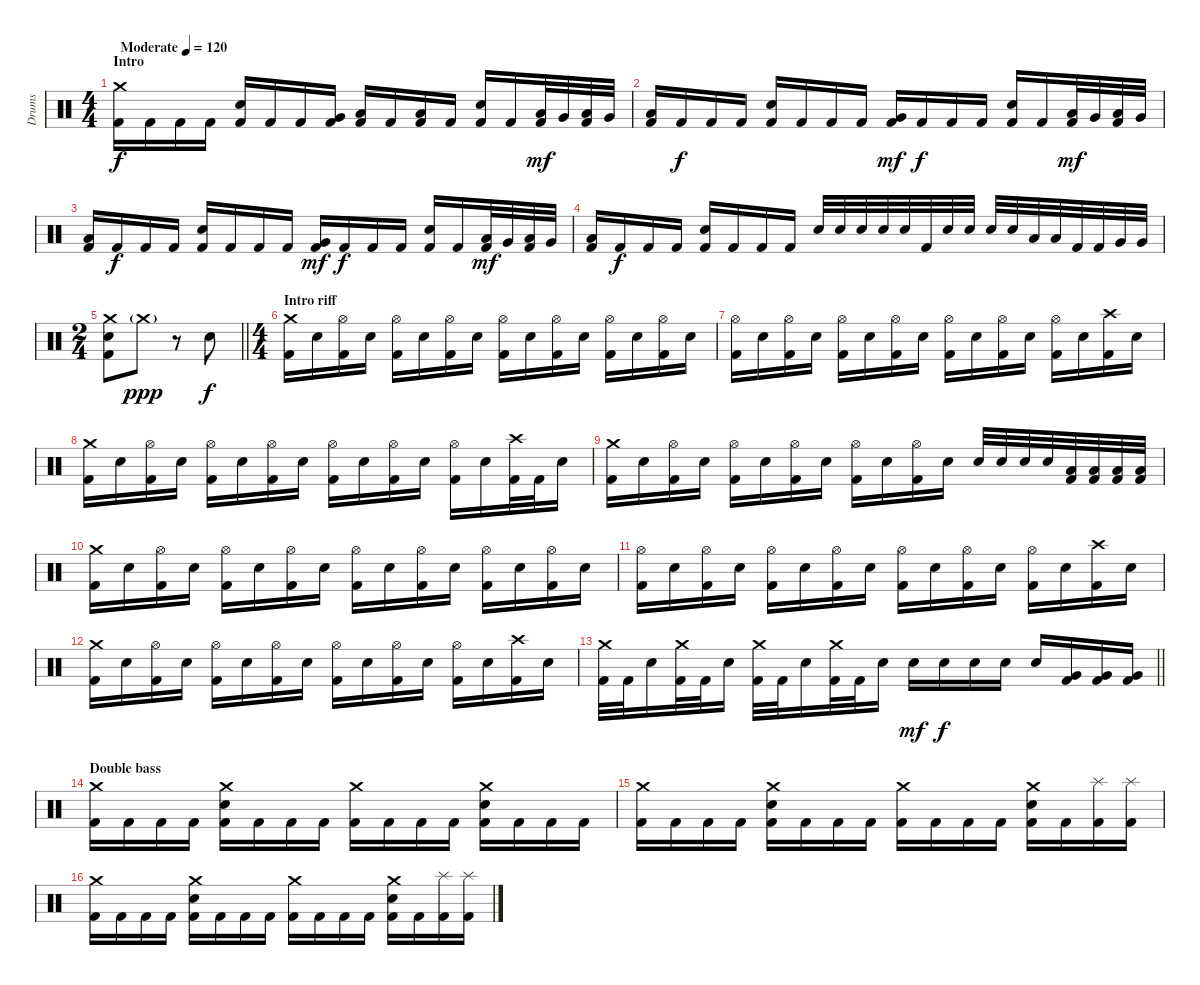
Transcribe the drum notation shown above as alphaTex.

\track ("Drums" "Drums") {instrument percussion}
\staff {score}
\articulation defaults
\ts (4 4)
\section ("" "Intro")
\tempo (120 "Moderate")
\clef neutral
\ks c
("Crash medium (hit)" "Kick (hit) 2").16{dy f} "Kick (hit) 2".16 "Kick (hit) 2".16 "Kick (hit) 2".16 ("Electric Snare (hit)" "Kick (hit) 2").16 "Kick (hit) 2".16 "Kick (hit) 2".16 ("Very Low Tom (hit)" "Kick (hit) 2").16 ("Low Floor Tom (hit)" "Kick (hit) 2").16 "Kick (hit) 2".16 ("Low Floor Tom (hit)" "Kick (hit) 2").16 "Kick (hit) 2".16 ("Electric Snare (hit)" "Kick (hit) 2").16 "Kick (hit) 2".16 ("Low Floor Tom (hit)" "Kick (hit) 2").32{dy mf} "Very Low Tom (hit)".32 ("Low Floor Tom (hit)" "Kick (hit) 2").32 "Very Low Tom (hit)".32 |
("Low Floor Tom (hit)" "Kick (hit) 2").16 "Kick (hit) 2".16{dy f} "Kick (hit) 2".16 "Kick (hit) 2".16 ("Electric Snare (hit)" "Kick (hit) 2").16 "Kick (hit) 2".16 "Kick (hit) 2".16 "Kick (hit) 2".16 ("Very Low Tom (hit)" "Kick (hit) 2").16{dy mf} "Kick (hit) 2".16{dy f} "Kick (hit) 2".16 "Kick (hit) 2".16 ("Electric Snare (hit)" "Kick (hit) 2").16 "Kick (hit) 2".16 ("Low Floor Tom (hit)" "Kick (hit) 2").32{dy mf} "Very Low Tom (hit)".32 ("Low Floor Tom (hit)" "Kick (hit) 2").32 "Very Low Tom (hit)".32 |
("Low Floor Tom (hit)" "Kick (hit) 2").16 "Kick (hit) 2".16{dy f} "Kick (hit) 2".16 "Kick (hit) 2".16 ("Electric Snare (hit)" "Kick (hit) 2").16 "Kick (hit) 2".16 "Kick (hit) 2".16 "Kick (hit) 2".16 ("Very Low Tom (hit)" "Kick (hit) 2").16{dy mf} "Kick (hit) 2".16{dy f} "Kick (hit) 2".16 "Kick (hit) 2".16 ("Electric Snare (hit)" "Kick (hit) 2").16 "Kick (hit) 2".16 ("Low Floor Tom (hit)" "Kick (hit) 2").32{dy mf} "Very Low Tom (hit)".32 ("Low Floor Tom (hit)" "Kick (hit) 2").32 "Very Low Tom (hit)".32 |
("Low Floor Tom (hit)" "Kick (hit) 2").16 "Kick (hit) 2".16{dy f} "Kick (hit) 2".16 "Kick (hit) 2".16 ("Electric Snare (hit)" "Kick (hit) 2").16 "Kick (hit) 2".16 "Kick (hit) 2".16 "Kick (hit) 2".16 "Electric Snare (hit)".32 "Electric Snare (hit)".32 "Electric Snare (hit)".32 "Electric Snare (hit)".32 "Electric Snare (hit)".32 "Kick (hit) 2".32 "Electric Snare (hit)".32 "Electric Snare (hit)".32 "Electric Snare (hit)".32 "Electric Snare (hit)".32 "Low Tom (hit)".32 "Low Tom (hit)".32 "Kick (hit) 2".32 "Kick (hit) 2".32 "Very Low Tom (hit)".32 "Very Low Tom (hit)".32 |
\ts (2 4)
\barLineRight lightlight
("Crash medium (hit)" "Electric Snare (hit)" "Kick (hit) 2").8 "Crash medium (hit)"{g}.8{dy ppp} r.8 "Electric Snare (hit)".8{dy f} |
\ts (4 4)
\section ("" "Intro riff")
("Crash medium (hit)" "Kick (hit) 2").16 "Electric Snare (hit)".16 ("Hi-Hat (open)" "Kick (hit) 2").16 "Electric Snare (hit)".16 ("Hi-Hat (open)" "Kick (hit) 2").16 "Electric Snare (hit)".16 ("Hi-Hat (open)" "Kick (hit) 2").16 "Electric Snare (hit)".16 ("Hi-Hat (open)" "Kick (hit) 2").16 "Electric Snare (hit)".16 ("Hi-Hat (open)" "Kick (hit) 2").16 "Electric Snare (hit)".16 ("Hi-Hat (open)" "Kick (hit) 2").16 "Electric Snare (hit)".16 ("Hi-Hat (open)" "Kick (hit) 2").16 "Electric Snare (hit)".16 |
("Hi-Hat (open)" "Kick (hit) 2").16 "Electric Snare (hit)".16 ("Hi-Hat (open)" "Kick (hit) 2").16 "Electric Snare (hit)".16 ("Hi-Hat (open)" "Kick (hit) 2").16 "Electric Snare (hit)".16 ("Hi-Hat (open)" "Kick (hit) 2").16 "Electric Snare (hit)".16 ("Hi-Hat (open)" "Kick (hit) 2").16 "Electric Snare (hit)".16 ("Hi-Hat (open)" "Kick (hit) 2").16 "Electric Snare (hit)".16 ("Hi-Hat (open)" "Kick (hit) 2").16 "Electric Snare (hit)".16 ("Crash high (hit)" "Kick (hit) 2").16 "Electric Snare (hit)".16 |
("Crash medium (hit)" "Kick (hit) 2").16 "Electric Snare (hit)".16 ("Hi-Hat (open)" "Kick (hit) 2").16 "Electric Snare (hit)".16 ("Hi-Hat (open)" "Kick (hit) 2").16 "Electric Snare (hit)".16 ("Hi-Hat (open)" "Kick (hit) 2").16 "Electric Snare (hit)".16 ("Hi-Hat (open)" "Kick (hit) 2").16 "Electric Snare (hit)".16 ("Hi-Hat (open)" "Kick (hit) 2").16 "Electric Snare (hit)".16 ("Hi-Hat (open)" "Kick (hit) 2").16 "Electric Snare (hit)".16 ("Crash high (hit)" "Kick (hit) 2").32 "Kick (hit) 2".32 "Electric Snare (hit)".16 |
("Crash medium (hit)" "Kick (hit) 2").16 "Electric Snare (hit)".16 ("Hi-Hat (open)" "Kick (hit) 2").16 "Electric Snare (hit)".16 ("Hi-Hat (open)" "Kick (hit) 2").16 "Electric Snare (hit)".16 ("Hi-Hat (open)" "Kick (hit) 2").16 "Electric Snare (hit)".16 ("Hi-Hat (open)" "Kick (hit) 2").16 "Electric Snare (hit)".16 ("Hi-Hat (open)" "Kick (hit) 2").16 "Electric Snare (hit)".16 "Electric Snare (hit)".32 "Electric Snare (hit)".32 "Electric Snare (hit)".32 "Electric Snare (hit)".32 ("Low Floor Tom (hit)" "Kick (hit) 2").32 ("Low Floor Tom (hit)" "Kick (hit) 2").32 ("Low Floor Tom (hit)" "Kick (hit) 2").32 ("Low Floor Tom (hit)" "Kick (hit) 2").32 |
("Crash medium (hit)" "Kick (hit) 2").16 "Electric Snare (hit)".16 ("Hi-Hat (open)" "Kick (hit) 2").16 "Electric Snare (hit)".16 ("Hi-Hat (open)" "Kick (hit) 2").16 "Electric Snare (hit)".16 ("Hi-Hat (open)" "Kick (hit) 2").16 "Electric Snare (hit)".16 ("Hi-Hat (open)" "Kick (hit) 2").16 "Electric Snare (hit)".16 ("Hi-Hat (open)" "Kick (hit) 2").16 "Electric Snare (hit)".16 ("Hi-Hat (open)" "Kick (hit) 2").16 "Electric Snare (hit)".16 ("Hi-Hat (open)" "Kick (hit) 2").16 "Electric Snare (hit)".16 |
("Hi-Hat (open)" "Kick (hit) 2").16 "Electric Snare (hit)".16 ("Hi-Hat (open)" "Kick (hit) 2").16 "Electric Snare (hit)".16 ("Hi-Hat (open)" "Kick (hit) 2").16 "Electric Snare (hit)".16 ("Hi-Hat (open)" "Kick (hit) 2").16 "Electric Snare (hit)".16 ("Hi-Hat (open)" "Kick (hit) 2").16 "Electric Snare (hit)".16 ("Hi-Hat (open)" "Kick (hit) 2").16 "Electric Snare (hit)".16 ("Hi-Hat (open)" "Kick (hit) 2").16 "Electric Snare (hit)".16 ("Crash high (hit)" "Kick (hit) 2").16 "Electric Snare (hit)".16 |
("Crash medium (hit)" "Kick (hit) 2").16 "Electric Snare (hit)".16 ("Hi-Hat (open)" "Kick (hit) 2").16 "Electric Snare (hit)".16 ("Hi-Hat (open)" "Kick (hit) 2").16 "Electric Snare (hit)".16 ("Hi-Hat (open)" "Kick (hit) 2").16 "Electric Snare (hit)".16 ("Hi-Hat (open)" "Kick (hit) 2").16 "Electric Snare (hit)".16 ("Hi-Hat (open)" "Kick (hit) 2").16 "Electric Snare (hit)".16 ("Hi-Hat (open)" "Kick (hit) 2").16 "Electric Snare (hit)".16 ("Crash high (hit)" "Kick (hit) 2").16 "Electric Snare (hit)".16 |
\barLineRight lightlight
("Crash medium (hit)" "Kick (hit) 2").32 "Kick (hit) 2".32 "Electric Snare (hit)".16 ("Crash medium (hit)" "Kick (hit) 2").32 "Kick (hit) 2".32 "Electric Snare (hit)".16 ("Crash medium (hit)" "Kick (hit) 2").32 "Kick (hit) 2".32 "Electric Snare (hit)".16 ("Crash medium (hit)" "Kick (hit) 2").32 "Kick (hit) 2".32 "Electric Snare (hit)".16 "Electric Snare (hit)".16{dy mf} "Electric Snare (hit)".16{dy f} "Electric Snare (hit)".16 "Electric Snare (hit)".16 "Electric Snare (hit)".16 ("Very Low Tom (hit)" "Kick (hit) 2").16 ("Very Low Tom (hit)" "Kick (hit) 2").16 ("Very Low Tom (hit)" "Kick (hit) 2").16 |
\section ("" "Double bass")
("Crash medium (hit)" "Kick (hit) 2").16 "Kick (hit) 2".16 "Kick (hit) 2".16 "Kick (hit) 2".16 ("Crash medium (hit)" "Electric Snare (hit)" "Kick (hit) 2").16 "Kick (hit) 2".16 "Kick (hit) 2".16 "Kick (hit) 2".16 ("Crash medium (hit)" "Kick (hit) 2").16 "Kick (hit) 2".16 "Kick (hit) 2".16 "Kick (hit) 2".16 ("Crash medium (hit)" "Electric Snare (hit)" "Kick (hit) 2").16 "Kick (hit) 2".16 "Kick (hit) 2".16 "Kick (hit) 2".16 |
("Crash medium (hit)" "Kick (hit) 2").16 "Kick (hit) 2".16 "Kick (hit) 2".16 "Kick (hit) 2".16 ("Crash medium (hit)" "Electric Snare (hit)" "Kick (hit) 2").16 "Kick (hit) 2".16 "Kick (hit) 2".16 "Kick (hit) 2".16 ("Crash medium (hit)" "Kick (hit) 2").16 "Kick (hit) 2".16 "Kick (hit) 2".16 "Kick (hit) 2".16 ("Crash medium (hit)" "Electric Snare (hit)" "Kick (hit) 2").16 "Kick (hit) 2".16 ("Splash (hit)" "Kick (hit) 2").16 ("Splash (hit)" "Kick (hit) 2").16 |
("Crash medium (hit)" "Kick (hit) 2").16 "Kick (hit) 2".16 "Kick (hit) 2".16 "Kick (hit) 2".16 ("Crash medium (hit)" "Electric Snare (hit)" "Kick (hit) 2").16 "Kick (hit) 2".16 "Kick (hit) 2".16 "Kick (hit) 2".16 ("Crash medium (hit)" "Kick (hit) 2").16 "Kick (hit) 2".16 "Kick (hit) 2".16 "Kick (hit) 2".16 ("Crash medium (hit)" "Electric Snare (hit)" "Kick (hit) 2").16 "Kick (hit) 2".16 ("Splash (hit)" "Kick (hit) 2").16 ("Splash (hit)" "Kick (hit) 2").16
